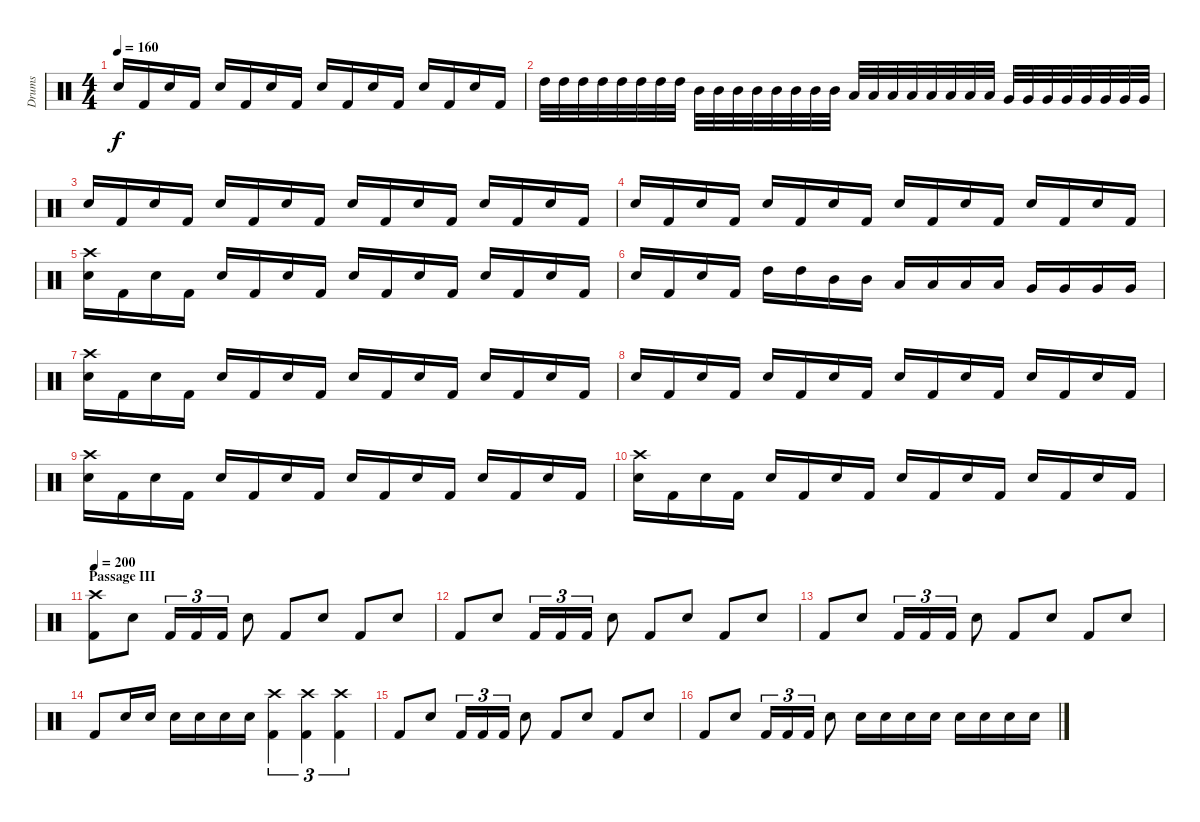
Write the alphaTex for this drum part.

\track ("Drums" "Drums") {instrument percussion}
\staff {score}
\articulation defaults
\ts (4 4)
\tempo 160
\clef neutral
\ks c "Electric Snare (hit)".16{dy f} "Kick (hit) 2".16 "Electric Snare (hit)".16 "Kick (hit) 2".16 "Electric Snare (hit)".16 "Kick (hit) 2".16 "Electric Snare (hit)".16 "Kick (hit) 2".16 "Electric Snare (hit)".16 "Kick (hit) 2".16 "Electric Snare (hit)".16 "Kick (hit) 2".16 "Electric Snare (hit)".16 "Kick (hit) 2".16 "Electric Snare (hit)".16 "Kick (hit) 2".16
|
"High Tom (hit)".32 "High Tom (hit)".32 "High Tom (hit)".32 "High Tom (hit)".32 "High Tom (hit)".32 "High Tom (hit)".32 "High Tom (hit)".32 "High Tom (hit)".32 "Mid Tom (hit)".32 "Mid Tom (hit)".32 "Mid Tom (hit)".32 "Mid Tom (hit)".32 "Mid Tom (hit)".32 "Mid Tom (hit)".32 "Mid Tom (hit)".32 "Mid Tom (hit)".32 "Low Tom (hit)".32 "Low Tom (hit)".32 "Low Tom (hit)".32 "Low Tom (hit)".32 "Low Tom (hit)".32 "Low Tom (hit)".32 "Low Tom (hit)".32 "Low Tom (hit)".32 "Very Low Tom (hit)".32 "Very Low Tom (hit)".32 "Very Low Tom (hit)".32 "Very Low Tom (hit)".32 "Very Low Tom (hit)".32 "Very Low Tom (hit)".32 "Very Low Tom (hit)".32 "Very Low Tom (hit)".32 |
"Electric Snare (hit)".16 "Kick (hit) 2".16 "Electric Snare (hit)".16 "Kick (hit) 2".16 "Electric Snare (hit)".16 "Kick (hit) 2".16 "Electric Snare (hit)".16 "Kick (hit) 2".16 "Electric Snare (hit)".16 "Kick (hit) 2".16 "Electric Snare (hit)".16 "Kick (hit) 2".16 "Electric Snare (hit)".16 "Kick (hit) 2".16 "Electric Snare (hit)".16 "Kick (hit) 2".16 |
"Electric Snare (hit)".16 "Kick (hit) 2".16 "Electric Snare (hit)".16 "Kick (hit) 2".16 "Electric Snare (hit)".16 "Kick (hit) 2".16 "Electric Snare (hit)".16 "Kick (hit) 2".16 "Electric Snare (hit)".16 "Kick (hit) 2".16 "Electric Snare (hit)".16 "Kick (hit) 2".16 "Electric Snare (hit)".16 "Kick (hit) 2".16 "Electric Snare (hit)".16 "Kick (hit) 2".16 |
("Crash high (hit)" "Electric Snare (hit)").16 "Kick (hit) 2".16 "Electric Snare (hit)".16 "Kick (hit) 2".16 "Electric Snare (hit)".16 "Kick (hit) 2".16 "Electric Snare (hit)".16 "Kick (hit) 2".16 "Electric Snare (hit)".16 "Kick (hit) 2".16 "Electric Snare (hit)".16 "Kick (hit) 2".16 "Electric Snare (hit)".16 "Kick (hit) 2".16 "Electric Snare (hit)".16 "Kick (hit) 2".16 |
"Electric Snare (hit)".16 "Kick (hit) 2".16 "Electric Snare (hit)".16 "Kick (hit) 2".16 "High Tom (hit)".16 "High Tom (hit)".16 "Mid Tom (hit)".16 "Mid Tom (hit)".16 "Low Tom (hit)".16 "Low Tom (hit)".16 "Low Tom (hit)".16 "Low Tom (hit)".16 "Very Low Tom (hit)".16 "Very Low Tom (hit)".16 "Very Low Tom (hit)".16 "Very Low Tom (hit)".16 |
("Crash high (hit)" "Electric Snare (hit)").16 "Kick (hit) 2".16 "Electric Snare (hit)".16 "Kick (hit) 2".16 "Electric Snare (hit)".16 "Kick (hit) 2".16 "Electric Snare (hit)".16 "Kick (hit) 2".16 "Electric Snare (hit)".16 "Kick (hit) 2".16 "Electric Snare (hit)".16 "Kick (hit) 2".16 "Electric Snare (hit)".16 "Kick (hit) 2".16 "Electric Snare (hit)".16 "Kick (hit) 2".16 |
"Electric Snare (hit)".16 "Kick (hit) 2".16 "Electric Snare (hit)".16 "Kick (hit) 2".16 "Electric Snare (hit)".16 "Kick (hit) 2".16 "Electric Snare (hit)".16 "Kick (hit) 2".16 "Electric Snare (hit)".16 "Kick (hit) 2".16 "Electric Snare (hit)".16 "Kick (hit) 2".16 "Electric Snare (hit)".16 "Kick (hit) 2".16 "Electric Snare (hit)".16 "Kick (hit) 2".16 |
("Crash high (hit)" "Electric Snare (hit)").16 "Kick (hit) 2".16 "Electric Snare (hit)".16 "Kick (hit) 2".16 "Electric Snare (hit)".16 "Kick (hit) 2".16 "Electric Snare (hit)".16 "Kick (hit) 2".16 "Electric Snare (hit)".16 "Kick (hit) 2".16 "Electric Snare (hit)".16 "Kick (hit) 2".16 "Electric Snare (hit)".16 "Kick (hit) 2".16 "Electric Snare (hit)".16 "Kick (hit) 2".16 |
("Crash high (hit)" "Electric Snare (hit)").16 "Kick (hit) 2".16 "Electric Snare (hit)".16 "Kick (hit) 2".16 "Electric Snare (hit)".16 "Kick (hit) 2".16 "Electric Snare (hit)".16 "Kick (hit) 2".16 "Electric Snare (hit)".16 "Kick (hit) 2".16 "Electric Snare (hit)".16 "Kick (hit) 2".16 "Electric Snare (hit)".16 "Kick (hit) 2".16 "Electric Snare (hit)".16 "Kick (hit) 2".16 |
\section ("" "Passage III")
\tempo 200
("Crash high (hit)" "Kick (hit) 2").8 "Electric Snare (hit)".8 "Kick (hit) 2".16{tu (3 2)} "Kick (hit) 2".16{tu (3 2)} "Kick (hit) 2".16{tu (3 2)} "Electric Snare (hit)".8 "Kick (hit) 2".8 "Electric Snare (hit)".8 "Kick (hit) 2".8 "Electric Snare (hit)".8 |
"Kick (hit) 2".8 "Electric Snare (hit)".8 "Kick (hit) 2".16{tu (3 2)} "Kick (hit) 2".16{tu (3 2)} "Kick (hit) 2".16{tu (3 2)} "Electric Snare (hit)".8 "Kick (hit) 2".8 "Electric Snare (hit)".8 "Kick (hit) 2".8 "Electric Snare (hit)".8 |
"Kick (hit) 2".8 "Electric Snare (hit)".8 "Kick (hit) 2".16{tu (3 2)} "Kick (hit) 2".16{tu (3 2)} "Kick (hit) 2".16{tu (3 2)} "Electric Snare (hit)".8 "Kick (hit) 2".8 "Electric Snare (hit)".8 "Kick (hit) 2".8 "Electric Snare (hit)".8 |
"Kick (hit) 2".8 "Electric Snare (hit)".16 "Electric Snare (hit)".16 "Electric Snare (hit)".16 "Electric Snare (hit)".16 "Electric Snare (hit)".16 "Electric Snare (hit)".16 ("Crash high (hit)" "Kick (hit) 2").4{tu (3 2)} ("Crash high (hit)" "Kick (hit) 2").4{tu (3 2)} ("Crash high (hit)" "Kick (hit) 2").4{tu (3 2)} |
"Kick (hit) 2".8 "Electric Snare (hit)".8 "Kick (hit) 2".16{tu (3 2)} "Kick (hit) 2".16{tu (3 2)} "Kick (hit) 2".16{tu (3 2)} "Electric Snare (hit)".8 "Kick (hit) 2".8 "Electric Snare (hit)".8 "Kick (hit) 2".8 "Electric Snare (hit)".8 |
"Kick (hit) 2".8 "Electric Snare (hit)".8 "Kick (hit) 2".16{tu (3 2)} "Kick (hit) 2".16{tu (3 2)} "Kick (hit) 2".16{tu (3 2)} "Electric Snare (hit)".8 "Electric Snare (hit)".16 "Electric Snare (hit)".16 "Electric Snare (hit)".16 "Electric Snare (hit)".16 "Electric Snare (hit)".16 "Electric Snare (hit)".16 "Electric Snare (hit)".16 "Electric Snare (hit)".16
